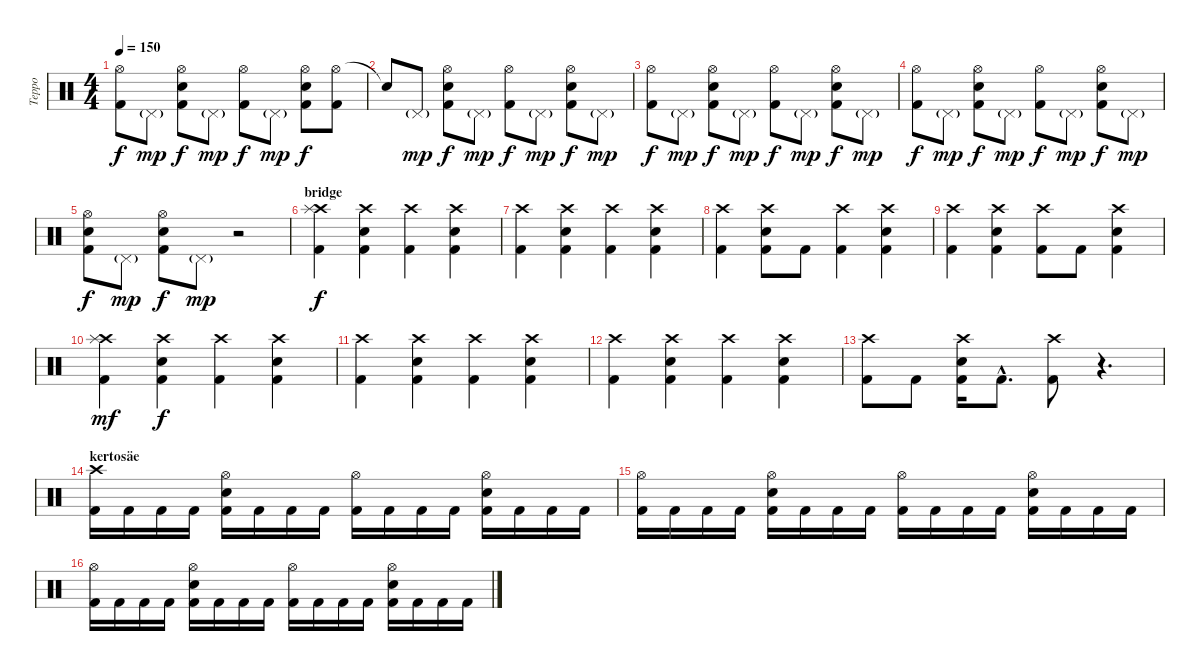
\track ("Teppo" "Teppo") {instrument percussion}
\staff {score}
\articulation defaults
\ts (4 4)
\tempo 150
\clef neutral
\ks c
("Hi-Hat (open)" "Kick (hit) 2").8{dy f} "Pedal Hi-Hat (hit)"{g}.8{dy mp} ("Hi-Hat (open)" "Electric Snare (hit)" "Kick (hit) 2").8{dy f} "Pedal Hi-Hat (hit)"{g}.8{dy mp} ("Hi-Hat (open)" "Kick (hit) 2").8{dy f} "Pedal Hi-Hat (hit)"{g}.8{dy mp} ("Hi-Hat (open)" "Electric Snare (hit)" "Kick (hit) 2").8{dy f} ("Hi-Hat (open)" "Kick (hit) 2").8 |
"Snare (hit)"{t}.8 "Pedal Hi-Hat (hit)"{g}.8{dy mp} ("Hi-Hat (open)" "Electric Snare (hit)" "Kick (hit) 2").8{dy f} "Pedal Hi-Hat (hit)"{g}.8{dy mp} ("Hi-Hat (open)" "Kick (hit) 2").8{dy f} "Pedal Hi-Hat (hit)"{g}.8{dy mp} ("Hi-Hat (open)" "Electric Snare (hit)" "Kick (hit) 2").8{dy f} "Pedal Hi-Hat (hit)"{g}.8{dy mp} |
("Hi-Hat (open)" "Kick (hit) 2").8{dy f} "Pedal Hi-Hat (hit)"{g}.8{dy mp} ("Hi-Hat (open)" "Electric Snare (hit)" "Kick (hit) 2").8{dy f} "Pedal Hi-Hat (hit)"{g}.8{dy mp} ("Hi-Hat (open)" "Kick (hit) 2").8{dy f} "Pedal Hi-Hat (hit)"{g}.8{dy mp} ("Hi-Hat (open)" "Electric Snare (hit)" "Kick (hit) 2").8{dy f} "Pedal Hi-Hat (hit)"{g}.8{dy mp} |
("Hi-Hat (open)" "Kick (hit) 2").8{dy f} "Pedal Hi-Hat (hit)"{g}.8{dy mp} ("Hi-Hat (open)" "Electric Snare (hit)" "Kick (hit) 2").8{dy f} "Pedal Hi-Hat (hit)"{g}.8{dy mp} ("Hi-Hat (open)" "Kick (hit) 2").8{dy f} "Pedal Hi-Hat (hit)"{g}.8{dy mp} ("Hi-Hat (open)" "Electric Snare (hit)" "Kick (hit) 2").8{dy f} "Pedal Hi-Hat (hit)"{g}.8{dy mp} |
("Hi-Hat (open)" "Electric Snare (hit)" "Kick (hit) 2").8{dy f} "Pedal Hi-Hat (hit)"{g}.8{dy mp} ("Hi-Hat (open)" "Electric Snare (hit)" "Kick (hit) 2").8{dy f} "Pedal Hi-Hat (hit)"{g}.8{dy mp} r.2 |
\section ("" "bridge")
("Crash high (hit)" "Splash (hit)" "Kick (hit) 2").4{dy f} ("Crash high (hit)" "Electric Snare (hit)" "Kick (hit) 2").4 ("Crash high (hit)" "Kick (hit) 2").4 ("Crash high (hit)" "Electric Snare (hit)" "Kick (hit) 2").4 |
("Crash high (hit)" "Kick (hit) 2").4 ("Crash high (hit)" "Electric Snare (hit)" "Kick (hit) 2").4 ("Crash high (hit)" "Kick (hit) 2").4 ("Crash high (hit)" "Electric Snare (hit)" "Kick (hit) 2").4 |
("Crash high (hit)" "Kick (hit) 2").4 ("Crash high (hit)" "Electric Snare (hit)" "Kick (hit) 2").8 "Kick (hit) 2".8 ("Crash high (hit)" "Kick (hit) 2").4 ("Crash high (hit)" "Electric Snare (hit)" "Kick (hit) 2").4 |
("Crash high (hit)" "Kick (hit) 2").4 ("Crash high (hit)" "Electric Snare (hit)" "Kick (hit) 2").4 ("Crash high (hit)" "Kick (hit) 2").8 "Kick (hit) 2".8 ("Crash high (hit)" "Electric Snare (hit)" "Kick (hit) 2").4 |
("Crash high (hit)" "Splash (hit)" "Kick (hit) 2").4{dy mf} ("Crash high (hit)" "Electric Snare (hit)" "Kick (hit) 2").4{dy f} ("Crash high (hit)" "Kick (hit) 2").4 ("Crash high (hit)" "Electric Snare (hit)" "Kick (hit) 2").4 |
("Crash high (hit)" "Kick (hit) 2").4 ("Crash high (hit)" "Electric Snare (hit)" "Kick (hit) 2").4 ("Crash high (hit)" "Kick (hit) 2").4 ("Crash high (hit)" "Electric Snare (hit)" "Kick (hit) 2").4 |
("Crash high (hit)" "Kick (hit) 2").4 ("Crash high (hit)" "Electric Snare (hit)" "Kick (hit) 2").4 ("Crash high (hit)" "Kick (hit) 2").4 ("Crash high (hit)" "Electric Snare (hit)" "Kick (hit) 2").4 |
("Crash high (hit)" "Kick (hit) 2").8 "Kick (hit) 2".8 ("Crash high (hit)" "Electric Snare (hit)" "Kick (hit) 2").16 "Kick (hit) 2"{hac}.8{d} ("Crash high (hit)"{pm} "Kick (hit) 2").8 r.4{d} |
\section ("" "kertosäe")
("Crash high (hit)" "Kick (hit) 2").16 "Kick (hit) 2".16 "Kick (hit) 2".16 "Kick (hit) 2".16 ("Hi-Hat (open)" "Electric Snare (hit)" "Kick (hit) 2").16 "Kick (hit) 2".16 "Kick (hit) 2".16 "Kick (hit) 2".16 ("Hi-Hat (open)" "Kick (hit) 2").16 "Kick (hit) 2".16 "Kick (hit) 2".16 "Kick (hit) 2".16 ("Hi-Hat (open)" "Electric Snare (hit)" "Kick (hit) 2").16 "Kick (hit) 2".16 "Kick (hit) 2".16 "Kick (hit) 2".16 |
("Hi-Hat (open)" "Kick (hit) 2").16 "Kick (hit) 2".16 "Kick (hit) 2".16 "Kick (hit) 2".16 ("Hi-Hat (open)" "Electric Snare (hit)" "Kick (hit) 2").16 "Kick (hit) 2".16 "Kick (hit) 2".16 "Kick (hit) 2".16 ("Hi-Hat (open)" "Kick (hit) 2").16 "Kick (hit) 2".16 "Kick (hit) 2".16 "Kick (hit) 2".16 ("Hi-Hat (open)" "Electric Snare (hit)" "Kick (hit) 2").16 "Kick (hit) 2".16 "Kick (hit) 2".16 "Kick (hit) 2".16 |
("Hi-Hat (open)" "Kick (hit) 2").16 "Kick (hit) 2".16 "Kick (hit) 2".16 "Kick (hit) 2".16 ("Hi-Hat (open)" "Electric Snare (hit)" "Kick (hit) 2").16 "Kick (hit) 2".16 "Kick (hit) 2".16 "Kick (hit) 2".16 ("Hi-Hat (open)" "Kick (hit) 2").16 "Kick (hit) 2".16 "Kick (hit) 2".16 "Kick (hit) 2".16 ("Hi-Hat (open)" "Electric Snare (hit)" "Kick (hit) 2").16 "Kick (hit) 2".16 "Kick (hit) 2".16 "Kick (hit) 2".16
